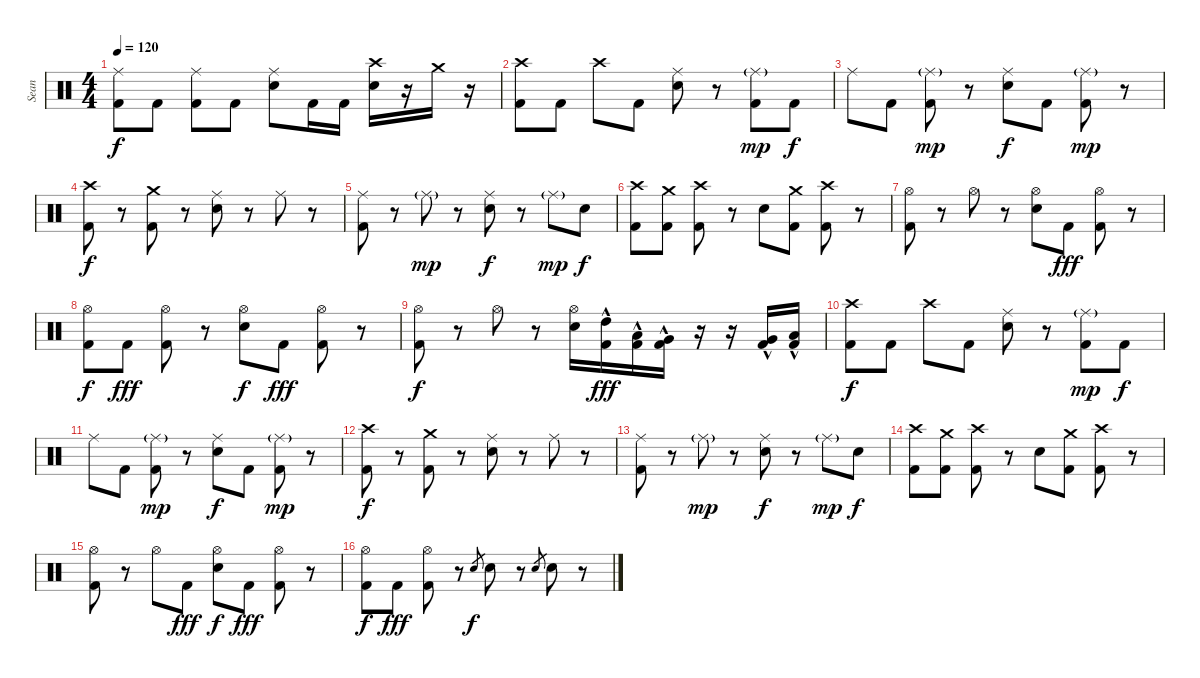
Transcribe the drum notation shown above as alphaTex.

\track ("Sean" "Sean") {instrument percussion}
\staff {score}
\articulation defaults
\ts (4 4)
\tempo 120
\clef neutral
\ks c
("Ride (middle)" "Kick (hit) 2").8{dy f} "Kick (hit) 2".8 ("Ride (middle)" "Kick (hit) 2").8 "Kick (hit) 2".8 ("Ride (middle)" "Snare (hit) 2").8 "Kick (hit) 2".16 "Kick (hit) 2".16 ("Crash high (hit)" "Snare (hit) 2").16 r.16 "Crash medium (hit)".16 r.16 |
("Crash high (hit)" "Kick (hit) 2").8 "Kick (hit) 2".8 "Crash high (hit)".8 "Kick (hit) 2".8 ("Ride (middle)" "Snare (hit) 2").8 r.8 ("Ride (middle)"{g} "Kick (hit) 2").8{dy mp} "Kick (hit) 2".8{dy f} |
"Ride (middle)".8 "Kick (hit) 2".8 ("Ride (middle)"{g} "Kick (hit) 2").8{dy mp} r.8 ("Ride (middle)" "Snare (hit) 2").8{dy f} "Kick (hit) 2".8 ("Ride (middle)"{g} "Kick (hit) 2").8{dy mp} r.8 |
("Crash high (hit)" "Kick (hit) 2").8{dy f} r.8 ("Crash medium (hit)" "Kick (hit) 2").8 r.8 ("Ride (middle)" "Snare (hit) 2").8 r.8 "Ride (middle)".8 r.8 |
("Ride (middle)" "Kick (hit) 2").8 r.8 "Ride (middle)"{g}.8{dy mp} r.8 ("Ride (middle)" "Snare (hit) 2").8{dy f} r.8 "Ride (middle)"{g}.8{dy mp} "Snare (hit) 2".8{dy f} |
("Crash high (hit)" "Kick (hit) 2").8 ("Crash medium (hit)" "Kick (hit) 2").8 ("Crash high (hit)" "Kick (hit) 2").8 r.8 "Snare (hit) 2".8 ("Crash medium (hit)" "Kick (hit) 2").8 ("Crash high (hit)" "Kick (hit) 2").8 r.8 |
("Hi-Hat (open)" "Kick (hit) 2").8 r.8 "Hi-Hat (open)".8 r.8 ("Hi-Hat (open)" "Snare (hit) 2").8 "Kick (hit) 2".8{dy fff} ("Hi-Hat (open)" "Kick (hit) 2").8 r.8 |
("Hi-Hat (open)" "Kick (hit) 2").8{dy f} "Kick (hit) 2".8{dy fff} ("Hi-Hat (open)" "Kick (hit) 2").8 r.8 ("Hi-Hat (open)" "Snare (hit) 2").8{dy f} "Kick (hit) 2".8{dy fff} ("Hi-Hat (open)" "Kick (hit) 2").8 r.8 |
("Hi-Hat (open)" "Kick (hit) 2").8{dy f} r.8 "Hi-Hat (open)".8 r.8 ("Hi-Hat (open)" "Snare (hit) 2").16 ("High Tom (hit)" "Kick (hit) 2"{hac}).16{dy fff} ("Low Tom (hit)" "Kick (hit) 2"{hac}).16 ("Very Low Tom (hit)" "Kick (hit) 2"{hac}).16 r.16 r.16 ("Very Low Tom (hit)" "Kick (hit) 2"{hac}).16 ("Low Floor Tom (hit)" "Kick (hit) 2"{hac}).16 |
("Crash high (hit)" "Kick (hit) 2").8{dy f} "Kick (hit) 2".8 "Crash high (hit)".8 "Kick (hit) 2".8 ("Ride (middle)" "Snare (hit) 2").8 r.8 ("Ride (middle)"{g} "Kick (hit) 2").8{dy mp} "Kick (hit) 2".8{dy f} |
"Ride (middle)".8 "Kick (hit) 2".8 ("Ride (middle)"{g} "Kick (hit) 2").8{dy mp} r.8 ("Ride (middle)" "Snare (hit) 2").8{dy f} "Kick (hit) 2".8 ("Ride (middle)"{g} "Kick (hit) 2").8{dy mp} r.8 |
("Crash high (hit)" "Kick (hit) 2").8{dy f} r.8 ("Crash medium (hit)" "Kick (hit) 2").8 r.8 ("Ride (middle)" "Snare (hit) 2").8 r.8 "Ride (middle)".8 r.8 |
("Ride (middle)" "Kick (hit) 2").8 r.8 "Ride (middle)"{g}.8{dy mp} r.8 ("Ride (middle)" "Snare (hit) 2").8{dy f} r.8 "Ride (middle)"{g}.8{dy mp} "Snare (hit) 2".8{dy f} |
("Crash high (hit)" "Kick (hit) 2").8 ("Crash medium (hit)" "Kick (hit) 2").8 ("Crash high (hit)" "Kick (hit) 2").8 r.8 "Snare (hit) 2".8 ("Crash medium (hit)" "Kick (hit) 2").8 ("Crash high (hit)" "Kick (hit) 2").8 r.8 |
("Hi-Hat (open)" "Kick (hit) 2").8 r.8 "Hi-Hat (open)".8 "Kick (hit) 2".8{dy fff} ("Hi-Hat (open)" "Snare (hit) 2").8{dy f} "Kick (hit) 2".8{dy fff} ("Hi-Hat (open)" "Kick (hit) 2").8 r.8 |
("Hi-Hat (open)" "Kick (hit) 2").8{dy f} "Kick (hit) 2".8{dy fff} ("Hi-Hat (open)" "Kick (hit) 2").8 r.8 "Snare (hit) 2".8{gr dy f} "Snare (hit) 2".8 r.8 "Snare (hit) 2".8{gr} "Snare (hit) 2".8 r.8
